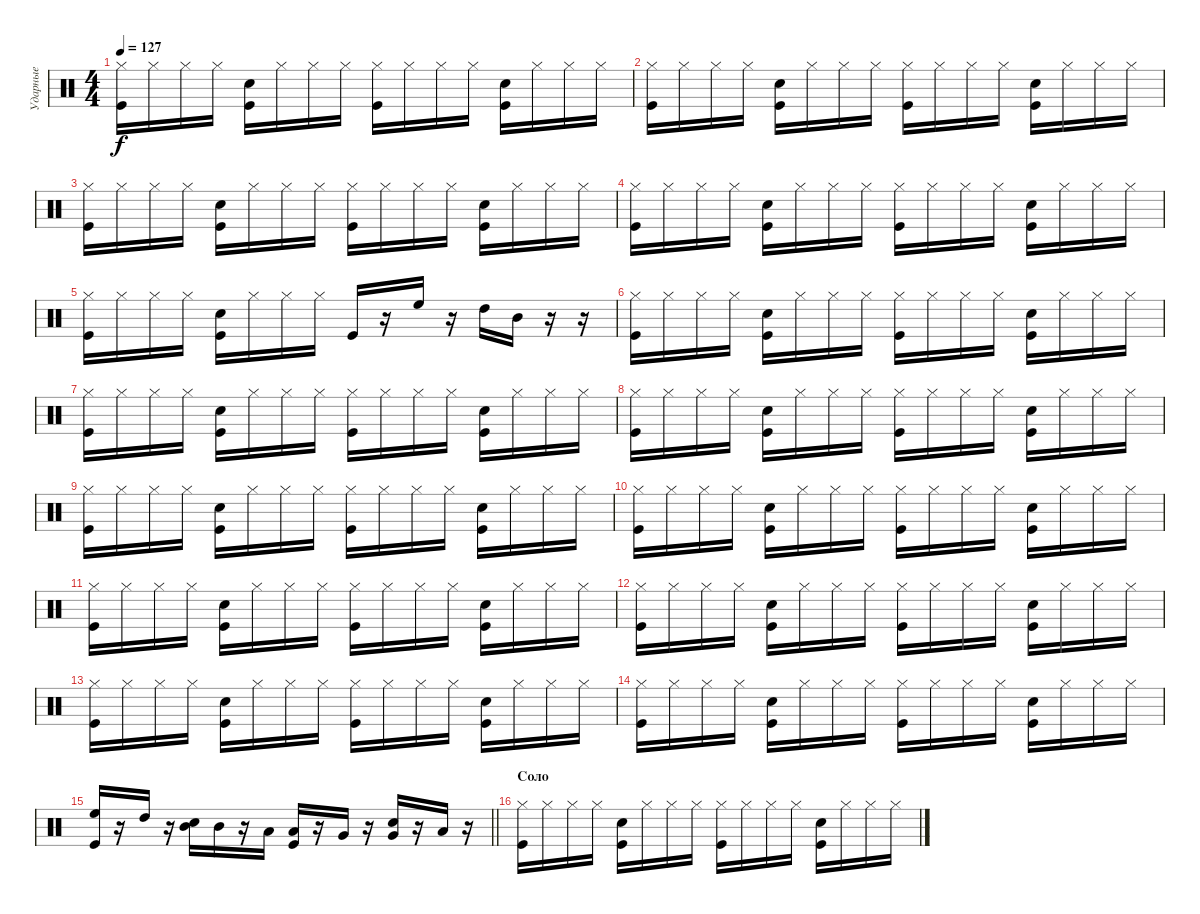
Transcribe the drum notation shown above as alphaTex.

\track ("Ударные" "Ударные") {solo instrument percussion}
\staff {score}
\articulation defaults
\ts (4 4)
\tempo 127
\clef neutral
\ks c
("Hi-Hat (closed)" "Kick (hit)").16{dy f} "Hi-Hat (closed)".16 "Hi-Hat (closed)".16 "Hi-Hat (closed)".16 ("Kick (hit)" "Snare (hit) 2").16 "Hi-Hat (closed)".16 "Hi-Hat (closed)".16 "Hi-Hat (closed)".16 ("Hi-Hat (closed)" "Kick (hit)").16 "Hi-Hat (closed)".16 "Hi-Hat (closed)".16 "Hi-Hat (closed)".16 ("Kick (hit)" "Snare (hit) 2").16 "Hi-Hat (closed)".16 "Hi-Hat (closed)".16 "Hi-Hat (closed)".16 |
("Hi-Hat (closed)" "Kick (hit)").16 "Hi-Hat (closed)".16 "Hi-Hat (closed)".16 "Hi-Hat (closed)".16 ("Kick (hit)" "Snare (hit) 2").16 "Hi-Hat (closed)".16 "Hi-Hat (closed)".16 "Hi-Hat (closed)".16 ("Hi-Hat (closed)" "Kick (hit)").16 "Hi-Hat (closed)".16 "Hi-Hat (closed)".16 "Hi-Hat (closed)".16 ("Kick (hit)" "Snare (hit) 2").16 "Hi-Hat (closed)".16 "Hi-Hat (closed)".16 "Hi-Hat (closed)".16 |
("Hi-Hat (closed)" "Kick (hit)").16 "Hi-Hat (closed)".16 "Hi-Hat (closed)".16 "Hi-Hat (closed)".16 ("Kick (hit)" "Snare (hit) 2").16 "Hi-Hat (closed)".16 "Hi-Hat (closed)".16 "Hi-Hat (closed)".16 ("Hi-Hat (closed)" "Kick (hit)").16 "Hi-Hat (closed)".16 "Hi-Hat (closed)".16 "Hi-Hat (closed)".16 ("Kick (hit)" "Snare (hit) 2").16 "Hi-Hat (closed)".16 "Hi-Hat (closed)".16 "Hi-Hat (closed)".16 |
("Hi-Hat (closed)" "Kick (hit)").16 "Hi-Hat (closed)".16 "Hi-Hat (closed)".16 "Hi-Hat (closed)".16 ("Kick (hit)" "Snare (hit) 2").16 "Hi-Hat (closed)".16 "Hi-Hat (closed)".16 "Hi-Hat (closed)".16 ("Hi-Hat (closed)" "Kick (hit)").16 "Hi-Hat (closed)".16 "Hi-Hat (closed)".16 "Hi-Hat (closed)".16 ("Kick (hit)" "Snare (hit) 2").16 "Hi-Hat (closed)".16 "Hi-Hat (closed)".16 "Hi-Hat (closed)".16 |
("Hi-Hat (closed)" "Kick (hit)").16 "Hi-Hat (closed)".16 "Hi-Hat (closed)".16 "Hi-Hat (closed)".16 ("Kick (hit)" "Snare (hit) 2").16 "Hi-Hat (closed)".16 "Hi-Hat (closed)".16 "Hi-Hat (closed)".16 "Kick (hit)".16 r.16 "High Floor Tom (hit)".16 r.16 "High Tom (hit)".16 "Mid Tom (hit)".16 r.16 r.16 |
("Hi-Hat (closed)" "Kick (hit)").16 "Hi-Hat (closed)".16 "Hi-Hat (closed)".16 "Hi-Hat (closed)".16 ("Kick (hit)" "Snare (hit) 2").16 "Hi-Hat (closed)".16 "Hi-Hat (closed)".16 "Hi-Hat (closed)".16 ("Hi-Hat (closed)" "Kick (hit)").16 "Hi-Hat (closed)".16 "Hi-Hat (closed)".16 "Hi-Hat (closed)".16 ("Kick (hit)" "Snare (hit) 2").16 "Hi-Hat (closed)".16 "Hi-Hat (closed)".16 "Hi-Hat (closed)".16 |
("Hi-Hat (closed)" "Kick (hit)").16 "Hi-Hat (closed)".16 "Hi-Hat (closed)".16 "Hi-Hat (closed)".16 ("Kick (hit)" "Snare (hit) 2").16 "Hi-Hat (closed)".16 "Hi-Hat (closed)".16 "Hi-Hat (closed)".16 ("Hi-Hat (closed)" "Kick (hit)").16 "Hi-Hat (closed)".16 "Hi-Hat (closed)".16 "Hi-Hat (closed)".16 ("Kick (hit)" "Snare (hit) 2").16 "Hi-Hat (closed)".16 "Hi-Hat (closed)".16 "Hi-Hat (closed)".16 |
("Hi-Hat (closed)" "Kick (hit)").16 "Hi-Hat (closed)".16 "Hi-Hat (closed)".16 "Hi-Hat (closed)".16 ("Kick (hit)" "Snare (hit) 2").16 "Hi-Hat (closed)".16 "Hi-Hat (closed)".16 "Hi-Hat (closed)".16 ("Hi-Hat (closed)" "Kick (hit)").16 "Hi-Hat (closed)".16 "Hi-Hat (closed)".16 "Hi-Hat (closed)".16 ("Kick (hit)" "Snare (hit) 2").16 "Hi-Hat (closed)".16 "Hi-Hat (closed)".16 "Hi-Hat (closed)".16 |
("Hi-Hat (closed)" "Kick (hit)").16 "Hi-Hat (closed)".16 "Hi-Hat (closed)".16 "Hi-Hat (closed)".16 ("Kick (hit)" "Snare (hit) 2").16 "Hi-Hat (closed)".16 "Hi-Hat (closed)".16 "Hi-Hat (closed)".16 ("Hi-Hat (closed)" "Kick (hit)").16 "Hi-Hat (closed)".16 "Hi-Hat (closed)".16 "Hi-Hat (closed)".16 ("Kick (hit)" "Snare (hit) 2").16 "Hi-Hat (closed)".16 "Hi-Hat (closed)".16 "Hi-Hat (closed)".16 |
("Hi-Hat (closed)" "Kick (hit)").16 "Hi-Hat (closed)".16 "Hi-Hat (closed)".16 "Hi-Hat (closed)".16 ("Kick (hit)" "Snare (hit) 2").16 "Hi-Hat (closed)".16 "Hi-Hat (closed)".16 "Hi-Hat (closed)".16 ("Hi-Hat (closed)" "Kick (hit)").16 "Hi-Hat (closed)".16 "Hi-Hat (closed)".16 "Hi-Hat (closed)".16 ("Kick (hit)" "Snare (hit) 2").16 "Hi-Hat (closed)".16 "Hi-Hat (closed)".16 "Hi-Hat (closed)".16 |
("Hi-Hat (closed)" "Kick (hit)").16 "Hi-Hat (closed)".16 "Hi-Hat (closed)".16 "Hi-Hat (closed)".16 ("Kick (hit)" "Snare (hit) 2").16 "Hi-Hat (closed)".16 "Hi-Hat (closed)".16 "Hi-Hat (closed)".16 ("Hi-Hat (closed)" "Kick (hit)").16 "Hi-Hat (closed)".16 "Hi-Hat (closed)".16 "Hi-Hat (closed)".16 ("Kick (hit)" "Snare (hit) 2").16 "Hi-Hat (closed)".16 "Hi-Hat (closed)".16 "Hi-Hat (closed)".16 |
("Hi-Hat (closed)" "Kick (hit)").16 "Hi-Hat (closed)".16 "Hi-Hat (closed)".16 "Hi-Hat (closed)".16 ("Kick (hit)" "Snare (hit) 2").16 "Hi-Hat (closed)".16 "Hi-Hat (closed)".16 "Hi-Hat (closed)".16 ("Hi-Hat (closed)" "Kick (hit)").16 "Hi-Hat (closed)".16 "Hi-Hat (closed)".16 "Hi-Hat (closed)".16 ("Kick (hit)" "Snare (hit) 2").16 "Hi-Hat (closed)".16 "Hi-Hat (closed)".16 "Hi-Hat (closed)".16 |
("Hi-Hat (closed)" "Kick (hit)").16 "Hi-Hat (closed)".16 "Hi-Hat (closed)".16 "Hi-Hat (closed)".16 ("Kick (hit)" "Snare (hit) 2").16 "Hi-Hat (closed)".16 "Hi-Hat (closed)".16 "Hi-Hat (closed)".16 ("Hi-Hat (closed)" "Kick (hit)").16 "Hi-Hat (closed)".16 "Hi-Hat (closed)".16 "Hi-Hat (closed)".16 ("Kick (hit)" "Snare (hit) 2").16 "Hi-Hat (closed)".16 "Hi-Hat (closed)".16 "Hi-Hat (closed)".16 |
("Hi-Hat (closed)" "Kick (hit)").16 "Hi-Hat (closed)".16 "Hi-Hat (closed)".16 "Hi-Hat (closed)".16 ("Kick (hit)" "Snare (hit) 2").16 "Hi-Hat (closed)".16 "Hi-Hat (closed)".16 "Hi-Hat (closed)".16 ("Hi-Hat (closed)" "Kick (hit)").16 "Hi-Hat (closed)".16 "Hi-Hat (closed)".16 "Hi-Hat (closed)".16 ("Kick (hit)" "Snare (hit) 2").16 "Hi-Hat (closed)".16 "Hi-Hat (closed)".16 "Hi-Hat (closed)".16 |
\barLineRight lightlight
("Kick (hit)" "High Floor Tom (hit)").16 r.16 "High Tom (hit)".16 r.16 ("Snare (hit) 2" "Mid Tom (hit)").16 "Mid Tom (hit)".16 r.16 "Low Tom (hit)".16 ("Kick (hit)" "Low Tom (hit)").16 r.16 "Very Low Tom (hit)".16 r.16 ("Very Low Tom (hit)" "Snare (hit) 2").16 r.16 "Low Floor Tom (hit)".16 r.16 |
\section ("" "Соло")
("Hi-Hat (closed)" "Kick (hit)").16 "Hi-Hat (closed)".16 "Hi-Hat (closed)".16 "Hi-Hat (closed)".16 ("Kick (hit)" "Snare (hit) 2").16 "Hi-Hat (closed)".16 "Hi-Hat (closed)".16 "Hi-Hat (closed)".16 ("Hi-Hat (closed)" "Kick (hit)").16 "Hi-Hat (closed)".16 "Hi-Hat (closed)".16 "Hi-Hat (closed)".16 ("Kick (hit)" "Snare (hit) 2").16 "Hi-Hat (closed)".16 "Hi-Hat (closed)".16 "Hi-Hat (closed)".16
